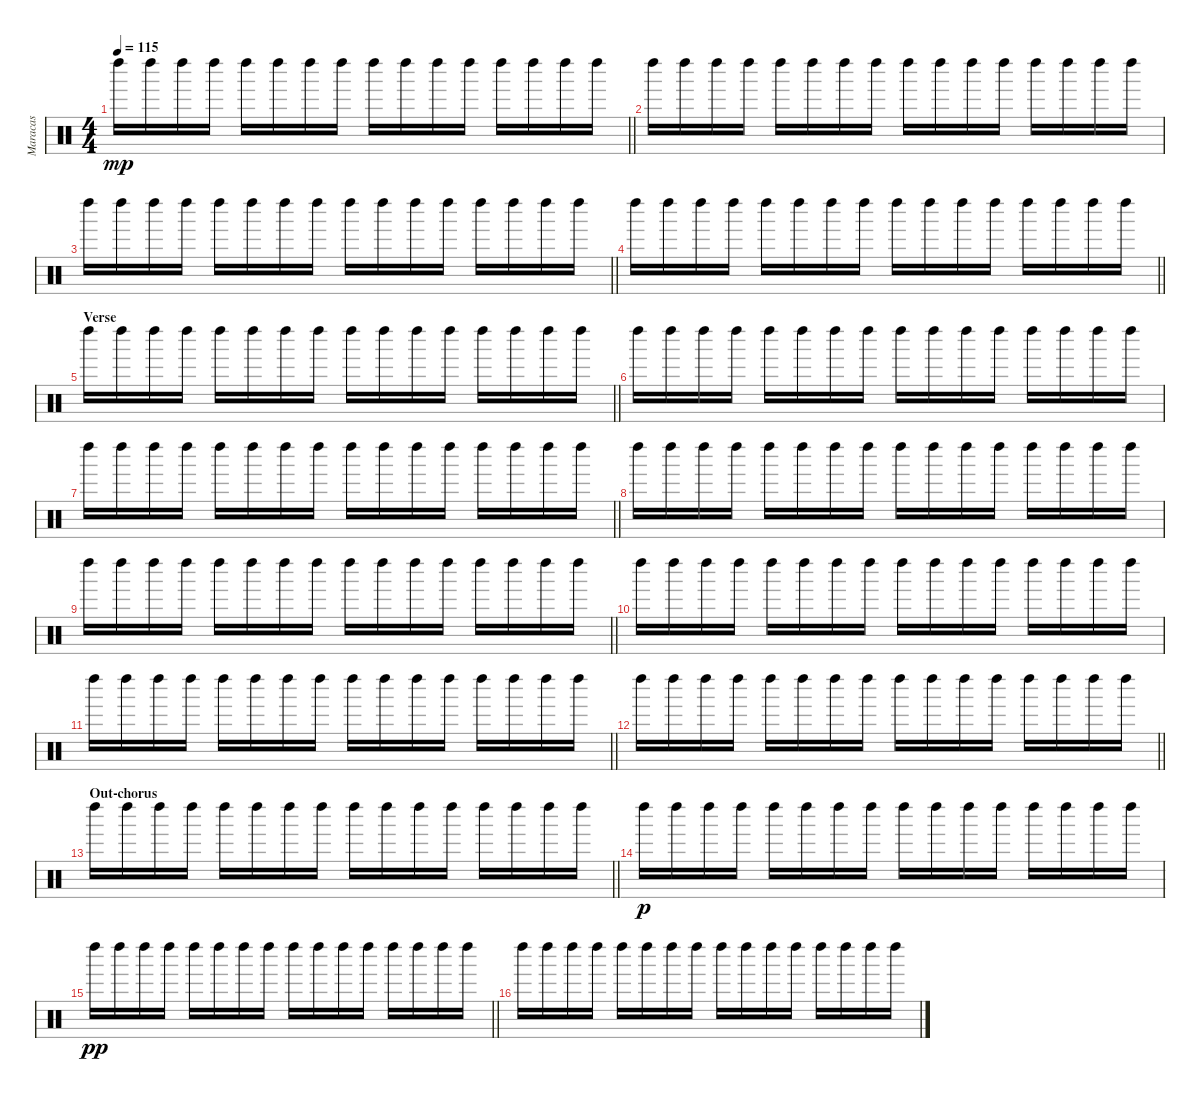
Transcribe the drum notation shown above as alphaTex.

\track ("Maracas" "Maracas") {instrument percussion}
\staff {score}
\articulation defaults
\ts (4 4)
\tempo 115
\clef neutral
\barLineRight lightlight
\ks c "Left Maraca (hit)".16{dy mp} "Left Maraca (hit)".16 "Left Maraca (hit)".16 "Left Maraca (hit)".16 "Left Maraca (hit)".16 "Left Maraca (hit)".16 "Left Maraca (hit)".16 "Left Maraca (hit)".16 "Left Maraca (hit)".16 "Left Maraca (hit)".16 "Left Maraca (hit)".16 "Left Maraca (hit)".16 "Left Maraca (hit)".16 "Left Maraca (hit)".16 "Left Maraca (hit)".16 "Left Maraca (hit)".16
|
"Left Maraca (hit)".16 "Left Maraca (hit)".16 "Left Maraca (hit)".16 "Left Maraca (hit)".16 "Left Maraca (hit)".16 "Left Maraca (hit)".16 "Left Maraca (hit)".16 "Left Maraca (hit)".16 "Left Maraca (hit)".16 "Left Maraca (hit)".16 "Left Maraca (hit)".16 "Left Maraca (hit)".16 "Left Maraca (hit)".16 "Left Maraca (hit)".16 "Left Maraca (hit)".16 "Left Maraca (hit)".16 |
\barLineRight lightlight "Left Maraca (hit)".16 "Left Maraca (hit)".16 "Left Maraca (hit)".16 "Left Maraca (hit)".16 "Left Maraca (hit)".16 "Left Maraca (hit)".16 "Left Maraca (hit)".16 "Left Maraca (hit)".16 "Left Maraca (hit)".16 "Left Maraca (hit)".16 "Left Maraca (hit)".16 "Left Maraca (hit)".16 "Left Maraca (hit)".16 "Left Maraca (hit)".16 "Left Maraca (hit)".16 "Left Maraca (hit)".16
|
\barLineRight lightlight "Left Maraca (hit)".16 "Left Maraca (hit)".16 "Left Maraca (hit)".16 "Left Maraca (hit)".16 "Left Maraca (hit)".16 "Left Maraca (hit)".16 "Left Maraca (hit)".16 "Left Maraca (hit)".16 "Left Maraca (hit)".16 "Left Maraca (hit)".16 "Left Maraca (hit)".16 "Left Maraca (hit)".16 "Left Maraca (hit)".16 "Left Maraca (hit)".16 "Left Maraca (hit)".16 "Left Maraca (hit)".16
|
\section ("" "Verse")
\barLineRight lightlight "Left Maraca (hit)".16 "Left Maraca (hit)".16 "Left Maraca (hit)".16 "Left Maraca (hit)".16 "Left Maraca (hit)".16 "Left Maraca (hit)".16 "Left Maraca (hit)".16 "Left Maraca (hit)".16 "Left Maraca (hit)".16 "Left Maraca (hit)".16 "Left Maraca (hit)".16 "Left Maraca (hit)".16 "Left Maraca (hit)".16 "Left Maraca (hit)".16 "Left Maraca (hit)".16 "Left Maraca (hit)".16
|
"Left Maraca (hit)".16 "Left Maraca (hit)".16 "Left Maraca (hit)".16 "Left Maraca (hit)".16 "Left Maraca (hit)".16 "Left Maraca (hit)".16 "Left Maraca (hit)".16 "Left Maraca (hit)".16 "Left Maraca (hit)".16 "Left Maraca (hit)".16 "Left Maraca (hit)".16 "Left Maraca (hit)".16 "Left Maraca (hit)".16 "Left Maraca (hit)".16 "Left Maraca (hit)".16 "Left Maraca (hit)".16 |
\barLineRight lightlight "Left Maraca (hit)".16 "Left Maraca (hit)".16 "Left Maraca (hit)".16 "Left Maraca (hit)".16 "Left Maraca (hit)".16 "Left Maraca (hit)".16 "Left Maraca (hit)".16 "Left Maraca (hit)".16 "Left Maraca (hit)".16 "Left Maraca (hit)".16 "Left Maraca (hit)".16 "Left Maraca (hit)".16 "Left Maraca (hit)".16 "Left Maraca (hit)".16 "Left Maraca (hit)".16 "Left Maraca (hit)".16
|
"Left Maraca (hit)".16 "Left Maraca (hit)".16 "Left Maraca (hit)".16 "Left Maraca (hit)".16 "Left Maraca (hit)".16 "Left Maraca (hit)".16 "Left Maraca (hit)".16 "Left Maraca (hit)".16 "Left Maraca (hit)".16 "Left Maraca (hit)".16 "Left Maraca (hit)".16 "Left Maraca (hit)".16 "Left Maraca (hit)".16 "Left Maraca (hit)".16 "Left Maraca (hit)".16 "Left Maraca (hit)".16 |
\barLineRight lightlight "Left Maraca (hit)".16 "Left Maraca (hit)".16 "Left Maraca (hit)".16 "Left Maraca (hit)".16 "Left Maraca (hit)".16 "Left Maraca (hit)".16 "Left Maraca (hit)".16 "Left Maraca (hit)".16 "Left Maraca (hit)".16 "Left Maraca (hit)".16 "Left Maraca (hit)".16 "Left Maraca (hit)".16 "Left Maraca (hit)".16 "Left Maraca (hit)".16 "Left Maraca (hit)".16 "Left Maraca (hit)".16
|
"Left Maraca (hit)".16 "Left Maraca (hit)".16 "Left Maraca (hit)".16 "Left Maraca (hit)".16 "Left Maraca (hit)".16 "Left Maraca (hit)".16 "Left Maraca (hit)".16 "Left Maraca (hit)".16 "Left Maraca (hit)".16 "Left Maraca (hit)".16 "Left Maraca (hit)".16 "Left Maraca (hit)".16 "Left Maraca (hit)".16 "Left Maraca (hit)".16 "Left Maraca (hit)".16 "Left Maraca (hit)".16 |
\barLineRight lightlight "Left Maraca (hit)".16 "Left Maraca (hit)".16 "Left Maraca (hit)".16 "Left Maraca (hit)".16 "Left Maraca (hit)".16 "Left Maraca (hit)".16 "Left Maraca (hit)".16 "Left Maraca (hit)".16 "Left Maraca (hit)".16 "Left Maraca (hit)".16 "Left Maraca (hit)".16 "Left Maraca (hit)".16 "Left Maraca (hit)".16 "Left Maraca (hit)".16 "Left Maraca (hit)".16 "Left Maraca (hit)".16
|
\barLineRight lightlight "Left Maraca (hit)".16 "Left Maraca (hit)".16 "Left Maraca (hit)".16 "Left Maraca (hit)".16 "Left Maraca (hit)".16 "Left Maraca (hit)".16 "Left Maraca (hit)".16 "Left Maraca (hit)".16 "Left Maraca (hit)".16 "Left Maraca (hit)".16 "Left Maraca (hit)".16 "Left Maraca (hit)".16 "Left Maraca (hit)".16 "Left Maraca (hit)".16 "Left Maraca (hit)".16 "Left Maraca (hit)".16
|
\section ("" "Out-chorus")
\barLineRight lightlight "Left Maraca (hit)".16 "Left Maraca (hit)".16 "Left Maraca (hit)".16 "Left Maraca (hit)".16 "Left Maraca (hit)".16 "Left Maraca (hit)".16 "Left Maraca (hit)".16 "Left Maraca (hit)".16 "Left Maraca (hit)".16 "Left Maraca (hit)".16 "Left Maraca (hit)".16 "Left Maraca (hit)".16 "Left Maraca (hit)".16 "Left Maraca (hit)".16 "Left Maraca (hit)".16 "Left Maraca (hit)".16
|
"Left Maraca (hit)".16{dy p} "Left Maraca (hit)".16 "Left Maraca (hit)".16 "Left Maraca (hit)".16 "Left Maraca (hit)".16 "Left Maraca (hit)".16 "Left Maraca (hit)".16 "Left Maraca (hit)".16 "Left Maraca (hit)".16 "Left Maraca (hit)".16 "Left Maraca (hit)".16 "Left Maraca (hit)".16 "Left Maraca (hit)".16 "Left Maraca (hit)".16 "Left Maraca (hit)".16 "Left Maraca (hit)".16 |
\barLineRight lightlight "Left Maraca (hit)".16{dy pp} "Left Maraca (hit)".16 "Left Maraca (hit)".16 "Left Maraca (hit)".16 "Left Maraca (hit)".16 "Left Maraca (hit)".16 "Left Maraca (hit)".16 "Left Maraca (hit)".16 "Left Maraca (hit)".16 "Left Maraca (hit)".16 "Left Maraca (hit)".16 "Left Maraca (hit)".16 "Left Maraca (hit)".16 "Left Maraca (hit)".16 "Left Maraca (hit)".16 "Left Maraca (hit)".16
|
"Left Maraca (hit)".16 "Left Maraca (hit)".16 "Left Maraca (hit)".16 "Left Maraca (hit)".16 "Left Maraca (hit)".16 "Left Maraca (hit)".16 "Left Maraca (hit)".16 "Left Maraca (hit)".16 "Left Maraca (hit)".16 "Left Maraca (hit)".16 "Left Maraca (hit)".16 "Left Maraca (hit)".16 "Left Maraca (hit)".16 "Left Maraca (hit)".16 "Left Maraca (hit)".16 "Left Maraca (hit)".16
